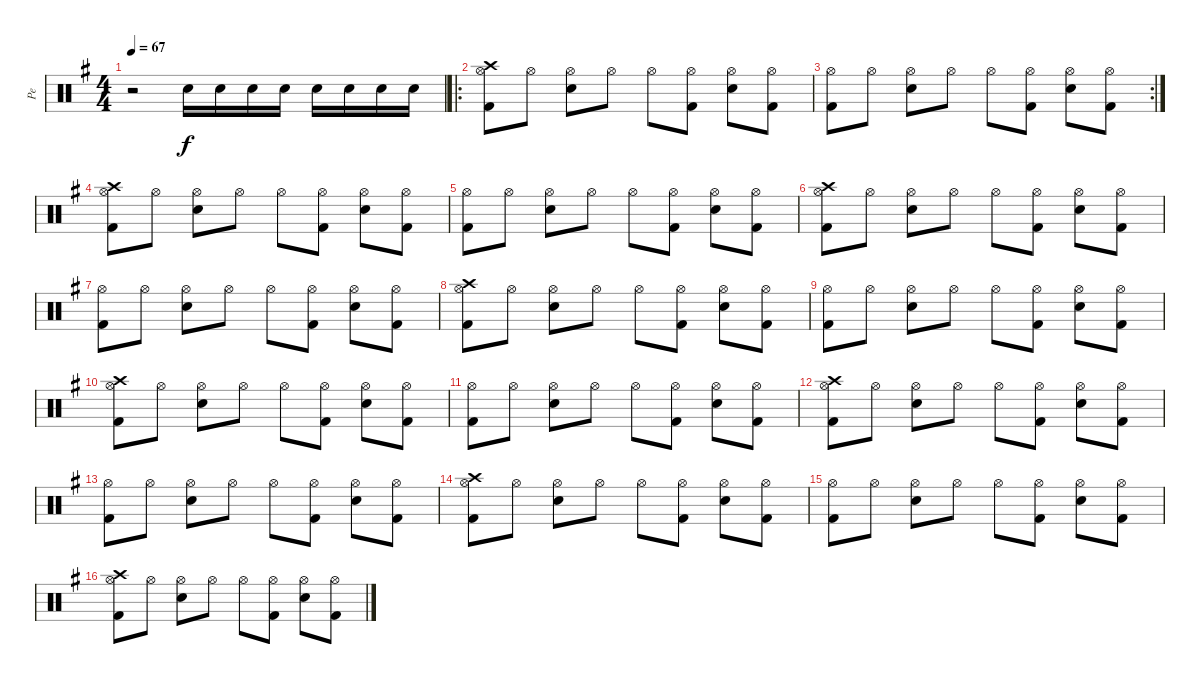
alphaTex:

\track ("Pe" "Pe") {instrument percussion}
\staff {score}
\articulation defaults
\ts (4 4)
\tempo 67
\clef neutral
\ks g
r.2{dy f} "Snare (hit) 2".16 "Snare (hit) 2".16 "Snare (hit) 2".16 "Snare (hit) 2".16 "Snare (hit) 2".16 "Snare (hit) 2".16 "Snare (hit) 2".16 "Snare (hit) 2".16 |
\ro
("Crash high (hit)" "Hi-Hat (open)" "Kick (hit) 2").8 "Hi-Hat (open)".8 ("Snare (hit) 2" "Hi-Hat (open)").8 "Hi-Hat (open)".8 "Hi-Hat (open)".8 ("Hi-Hat (open)" "Kick (hit) 2").8 ("Snare (hit) 2" "Hi-Hat (open)").8 ("Hi-Hat (open)" "Kick (hit) 2").8 |
\rc 2
("Hi-Hat (open)" "Kick (hit) 2").8 "Hi-Hat (open)".8 ("Snare (hit) 2" "Hi-Hat (open)").8 "Hi-Hat (open)".8 "Hi-Hat (open)".8 ("Hi-Hat (open)" "Kick (hit) 2").8 ("Snare (hit) 2" "Hi-Hat (open)").8 ("Hi-Hat (open)" "Kick (hit) 2").8 |
("Crash high (hit)" "Hi-Hat (open)" "Kick (hit) 2").8 "Hi-Hat (open)".8 ("Snare (hit) 2" "Hi-Hat (open)").8 "Hi-Hat (open)".8 "Hi-Hat (open)".8 ("Hi-Hat (open)" "Kick (hit) 2").8 ("Snare (hit) 2" "Hi-Hat (open)").8 ("Hi-Hat (open)" "Kick (hit) 2").8 |
("Hi-Hat (open)" "Kick (hit) 2").8 "Hi-Hat (open)".8 ("Snare (hit) 2" "Hi-Hat (open)").8 "Hi-Hat (open)".8 "Hi-Hat (open)".8 ("Hi-Hat (open)" "Kick (hit) 2").8 ("Snare (hit) 2" "Hi-Hat (open)").8 ("Hi-Hat (open)" "Kick (hit) 2").8 |
("Crash high (hit)" "Hi-Hat (open)" "Kick (hit) 2").8 "Hi-Hat (open)".8 ("Snare (hit) 2" "Hi-Hat (open)").8 "Hi-Hat (open)".8 "Hi-Hat (open)".8 ("Hi-Hat (open)" "Kick (hit) 2").8 ("Snare (hit) 2" "Hi-Hat (open)").8 ("Hi-Hat (open)" "Kick (hit) 2").8 |
("Hi-Hat (open)" "Kick (hit) 2").8 "Hi-Hat (open)".8 ("Snare (hit) 2" "Hi-Hat (open)").8 "Hi-Hat (open)".8 "Hi-Hat (open)".8 ("Hi-Hat (open)" "Kick (hit) 2").8 ("Snare (hit) 2" "Hi-Hat (open)").8 ("Hi-Hat (open)" "Kick (hit) 2").8 |
("Crash high (hit)" "Hi-Hat (open)" "Kick (hit) 2").8 "Hi-Hat (open)".8 ("Snare (hit) 2" "Hi-Hat (open)").8 "Hi-Hat (open)".8 "Hi-Hat (open)".8 ("Hi-Hat (open)" "Kick (hit) 2").8 ("Snare (hit) 2" "Hi-Hat (open)").8 ("Hi-Hat (open)" "Kick (hit) 2").8 |
("Hi-Hat (open)" "Kick (hit) 2").8 "Hi-Hat (open)".8 ("Snare (hit) 2" "Hi-Hat (open)").8 "Hi-Hat (open)".8 "Hi-Hat (open)".8 ("Hi-Hat (open)" "Kick (hit) 2").8 ("Snare (hit) 2" "Hi-Hat (open)").8 ("Hi-Hat (open)" "Kick (hit) 2").8 |
("Crash high (hit)" "Hi-Hat (open)" "Kick (hit) 2").8 "Hi-Hat (open)".8 ("Snare (hit) 2" "Hi-Hat (open)").8 "Hi-Hat (open)".8 "Hi-Hat (open)".8 ("Hi-Hat (open)" "Kick (hit) 2").8 ("Snare (hit) 2" "Hi-Hat (open)").8 ("Hi-Hat (open)" "Kick (hit) 2").8 |
("Hi-Hat (open)" "Kick (hit) 2").8 "Hi-Hat (open)".8 ("Snare (hit) 2" "Hi-Hat (open)").8 "Hi-Hat (open)".8 "Hi-Hat (open)".8 ("Hi-Hat (open)" "Kick (hit) 2").8 ("Snare (hit) 2" "Hi-Hat (open)").8 ("Hi-Hat (open)" "Kick (hit) 2").8 |
("Crash high (hit)" "Hi-Hat (open)" "Kick (hit) 2").8 "Hi-Hat (open)".8 ("Snare (hit) 2" "Hi-Hat (open)").8 "Hi-Hat (open)".8 "Hi-Hat (open)".8 ("Hi-Hat (open)" "Kick (hit) 2").8 ("Snare (hit) 2" "Hi-Hat (open)").8 ("Hi-Hat (open)" "Kick (hit) 2").8 |
("Hi-Hat (open)" "Kick (hit) 2").8 "Hi-Hat (open)".8 ("Snare (hit) 2" "Hi-Hat (open)").8 "Hi-Hat (open)".8 "Hi-Hat (open)".8 ("Hi-Hat (open)" "Kick (hit) 2").8 ("Snare (hit) 2" "Hi-Hat (open)").8 ("Hi-Hat (open)" "Kick (hit) 2").8 |
("Crash high (hit)" "Hi-Hat (open)" "Kick (hit) 2").8 "Hi-Hat (open)".8 ("Snare (hit) 2" "Hi-Hat (open)").8 "Hi-Hat (open)".8 "Hi-Hat (open)".8 ("Hi-Hat (open)" "Kick (hit) 2").8 ("Snare (hit) 2" "Hi-Hat (open)").8 ("Hi-Hat (open)" "Kick (hit) 2").8 |
("Hi-Hat (open)" "Kick (hit) 2").8 "Hi-Hat (open)".8 ("Snare (hit) 2" "Hi-Hat (open)").8 "Hi-Hat (open)".8 "Hi-Hat (open)".8 ("Hi-Hat (open)" "Kick (hit) 2").8 ("Snare (hit) 2" "Hi-Hat (open)").8 ("Hi-Hat (open)" "Kick (hit) 2").8 |
("Crash high (hit)" "Hi-Hat (open)" "Kick (hit) 2").8 "Hi-Hat (open)".8 ("Snare (hit) 2" "Hi-Hat (open)").8 "Hi-Hat (open)".8 "Hi-Hat (open)".8 ("Hi-Hat (open)" "Kick (hit) 2").8 ("Snare (hit) 2" "Hi-Hat (open)").8 ("Hi-Hat (open)" "Kick (hit) 2").8
